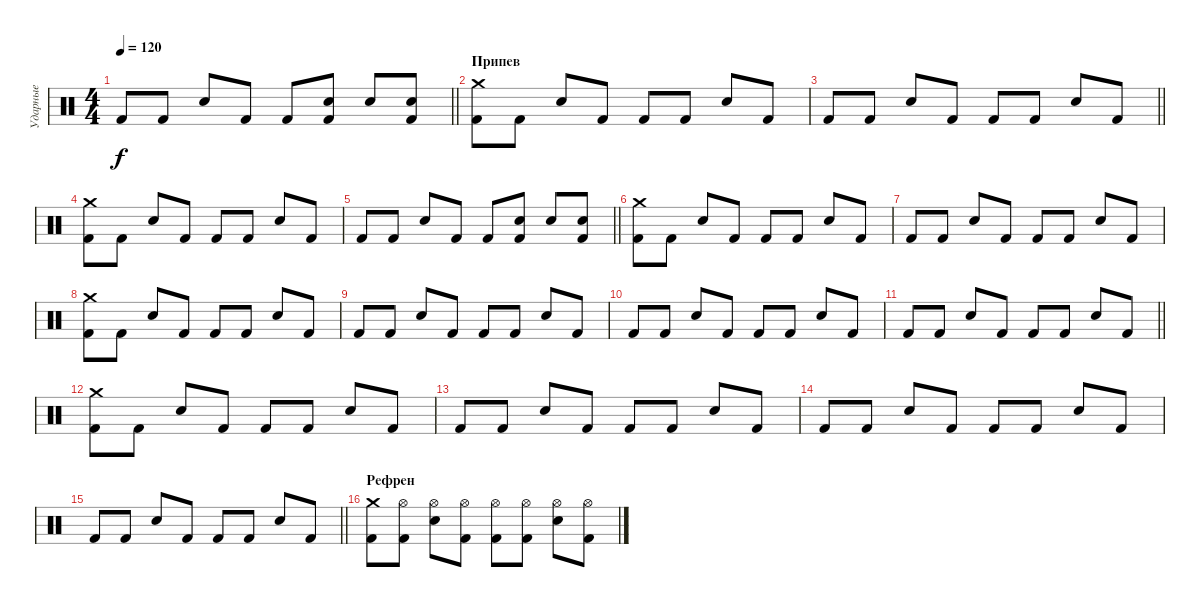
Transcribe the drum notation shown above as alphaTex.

\track ("Ударные" "Ударные") {instrument percussion}
\staff {score}
\articulation defaults
\ts (4 4)
\tempo 120
\clef neutral
\barLineRight lightlight
\ks c "Kick (hit) 2".8{dy f} "Kick (hit) 2".8 "Snare (hit) 2".8 "Kick (hit) 2".8 "Kick (hit) 2".8
("Snare (hit) 2" "Kick (hit) 2").8 "Snare (hit) 2".8 ("Snare (hit) 2" "Kick (hit) 2").8 |
\section ("" "Припев")
("Kick (hit) 2" "Crash medium (hit)").8 "Kick (hit) 2".8 "Snare (hit) 2".8 "Kick (hit) 2".8 "Kick (hit) 2".8 "Kick (hit) 2".8 "Snare (hit) 2".8 "Kick (hit) 2".8 |
\barLineRight lightlight "Kick (hit) 2".8 "Kick (hit) 2".8 "Snare (hit) 2".8 "Kick (hit) 2".8 "Kick (hit) 2".8 "Kick (hit) 2".8 "Snare (hit) 2".8 "Kick (hit) 2".8
|
("Kick (hit) 2" "Crash medium (hit)").8 "Kick (hit) 2".8 "Snare (hit) 2".8 "Kick (hit) 2".8 "Kick (hit) 2".8 "Kick (hit) 2".8 "Snare (hit) 2".8 "Kick (hit) 2".8 |
\barLineRight lightlight "Kick (hit) 2".8 "Kick (hit) 2".8 "Snare (hit) 2".8 "Kick (hit) 2".8 "Kick (hit) 2".8
("Snare (hit) 2" "Kick (hit) 2").8 "Snare (hit) 2".8 ("Snare (hit) 2" "Kick (hit) 2").8 |
("Kick (hit) 2" "Crash medium (hit)").8 "Kick (hit) 2".8 "Snare (hit) 2".8 "Kick (hit) 2".8 "Kick (hit) 2".8 "Kick (hit) 2".8 "Snare (hit) 2".8 "Kick (hit) 2".8 |
"Kick (hit) 2".8 "Kick (hit) 2".8 "Snare (hit) 2".8 "Kick (hit) 2".8 "Kick (hit) 2".8 "Kick (hit) 2".8 "Snare (hit) 2".8 "Kick (hit) 2".8 |
("Kick (hit) 2" "Crash medium (hit)").8 "Kick (hit) 2".8 "Snare (hit) 2".8 "Kick (hit) 2".8 "Kick (hit) 2".8 "Kick (hit) 2".8 "Snare (hit) 2".8 "Kick (hit) 2".8 |
"Kick (hit) 2".8 "Kick (hit) 2".8 "Snare (hit) 2".8 "Kick (hit) 2".8 "Kick (hit) 2".8 "Kick (hit) 2".8 "Snare (hit) 2".8 "Kick (hit) 2".8 |
"Kick (hit) 2".8 "Kick (hit) 2".8 "Snare (hit) 2".8 "Kick (hit) 2".8 "Kick (hit) 2".8 "Kick (hit) 2".8 "Snare (hit) 2".8 "Kick (hit) 2".8 |
\barLineRight lightlight "Kick (hit) 2".8 "Kick (hit) 2".8 "Snare (hit) 2".8 "Kick (hit) 2".8 "Kick (hit) 2".8 "Kick (hit) 2".8 "Snare (hit) 2".8 "Kick (hit) 2".8
|
("Kick (hit) 2" "Crash medium (hit)").8 "Kick (hit) 2".8 "Snare (hit) 2".8 "Kick (hit) 2".8 "Kick (hit) 2".8 "Kick (hit) 2".8 "Snare (hit) 2".8 "Kick (hit) 2".8 |
"Kick (hit) 2".8 "Kick (hit) 2".8 "Snare (hit) 2".8 "Kick (hit) 2".8 "Kick (hit) 2".8 "Kick (hit) 2".8 "Snare (hit) 2".8 "Kick (hit) 2".8 |
"Kick (hit) 2".8 "Kick (hit) 2".8 "Snare (hit) 2".8 "Kick (hit) 2".8 "Kick (hit) 2".8 "Kick (hit) 2".8 "Snare (hit) 2".8 "Kick (hit) 2".8 |
\barLineRight lightlight "Kick (hit) 2".8 "Kick (hit) 2".8 "Snare (hit) 2".8 "Kick (hit) 2".8 "Kick (hit) 2".8 "Kick (hit) 2".8 "Snare (hit) 2".8 "Kick (hit) 2".8
|
\section ("" "Рефрен")
("Kick (hit) 2" "Crash medium (hit)").8 ("Kick (hit) 2" "Hi-Hat (open)").8 ("Snare (hit) 2" "Hi-Hat (open)").8 ("Kick (hit) 2" "Hi-Hat (open)").8 ("Kick (hit) 2" "Hi-Hat (open)").8 ("Kick (hit) 2" "Hi-Hat (open)").8 ("Snare (hit) 2" "Hi-Hat (open)").8 ("Kick (hit) 2" "Hi-Hat (open)").8
